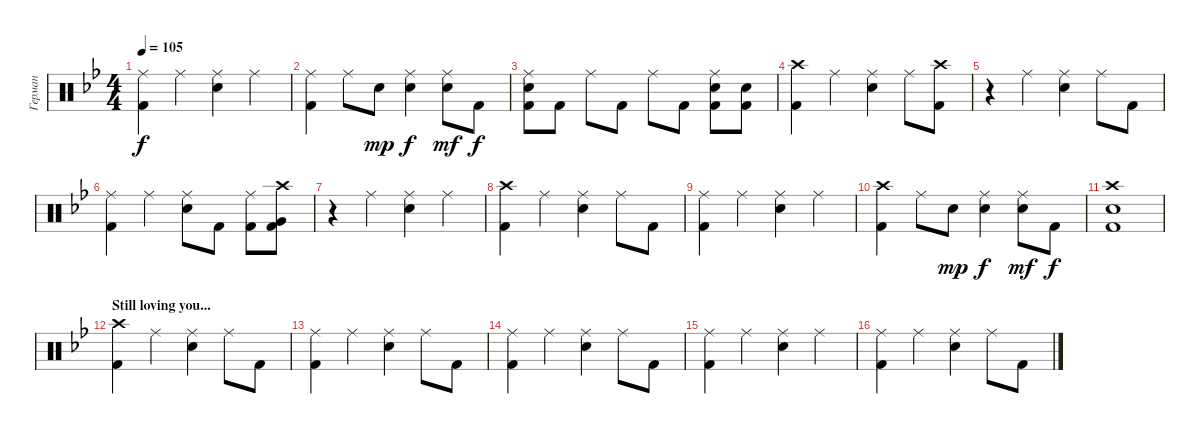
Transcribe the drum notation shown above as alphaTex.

\track ("Герман" "Герман") {instrument percussion}
\staff {score}
\articulation defaults
\ts (4 4)
\tempo 105
\clef neutral
\ks gminor
("Ride (middle)" "Kick (hit) 2").4{dy f} "Ride (middle)".4 ("Ride (middle)" "Electric Snare (hit)").4 "Ride (middle)".4 |
("Ride (middle)" "Kick (hit) 2").4 "Ride (middle)".8 "Electric Snare (hit)".8{dy mp} ("Ride (middle)" "Electric Snare (hit)").4{dy f} ("Ride (middle)" "Electric Snare (hit)").8{dy mf} "Kick (hit) 2".8{dy f} |
("Ride (middle)" "Electric Snare (hit)" "Kick (hit) 2").8 "Kick (hit) 2".8 "Ride (middle)".8 "Kick (hit) 2".8 "Ride (middle)".8 "Kick (hit) 2".8 ("Ride (middle)" "Electric Snare (hit)" "Kick (hit) 2").8 ("Electric Snare (hit)" "Kick (hit) 2").8 |
("Crash high (hit)" "Kick (hit) 2").4 "Ride (middle)".4 ("Ride (middle)" "Electric Snare (hit)").4 "Ride (middle)".8 ("Crash high (hit)" "Kick (hit) 2").8 |
r.4 "Ride (middle)".4 ("Ride (middle)" "Electric Snare (hit)").4 "Ride (middle)".8 "Kick (hit) 2".8 |
("Ride (middle)" "Kick (hit) 2").4 "Ride (middle)".4 ("Ride (middle)" "Electric Snare (hit)").8 "Kick (hit) 2".8 ("Ride (middle)" "Kick (hit) 2").8 ("Crash high (hit)" "Very Low Tom (hit)" "Kick (hit) 2").8 |
r.4 "Ride (middle)".4 ("Ride (middle)" "Electric Snare (hit)").4 "Ride (middle)".4 |
("Crash high (hit)" "Kick (hit) 2").4 "Ride (middle)".4 ("Ride (middle)" "Electric Snare (hit)").4 "Ride (middle)".8 "Kick (hit) 2".8 |
("Ride (middle)" "Kick (hit) 2").4 "Ride (middle)".4 ("Ride (middle)" "Electric Snare (hit)").4 "Ride (middle)".4 |
("Crash high (hit)" "Kick (hit) 2").4 "Ride (middle)".8 "Electric Snare (hit)".8{dy mp} ("Ride (middle)" "Electric Snare (hit)").4{dy f} ("Ride (middle)" "Electric Snare (hit)").8{dy mf} "Kick (hit) 2".8{dy f} |
("Crash high (hit)" "Electric Snare (hit)" "Kick (hit) 2").1 |
\section ("" "Still loving you...")
("Crash high (hit)" "Kick (hit) 2").4 "Ride (middle)".4 ("Ride (middle)" "Electric Snare (hit)").4 "Ride (middle)".8 "Kick (hit) 2".8 |
("Ride (middle)" "Kick (hit) 2").4 "Ride (middle)".4 ("Ride (middle)" "Electric Snare (hit)").4 "Ride (middle)".8 "Kick (hit) 2".8 |
("Ride (middle)" "Kick (hit) 2").4 "Ride (middle)".4 ("Ride (middle)" "Electric Snare (hit)").4 "Ride (middle)".8 "Kick (hit) 2".8 |
("Ride (middle)" "Kick (hit) 2").4 "Ride (middle)".4 ("Ride (middle)" "Electric Snare (hit)").4 "Ride (middle)".4 |
("Ride (middle)" "Kick (hit) 2").4 "Ride (middle)".4 ("Ride (middle)" "Electric Snare (hit)").4 "Ride (middle)".8 "Kick (hit) 2".8
